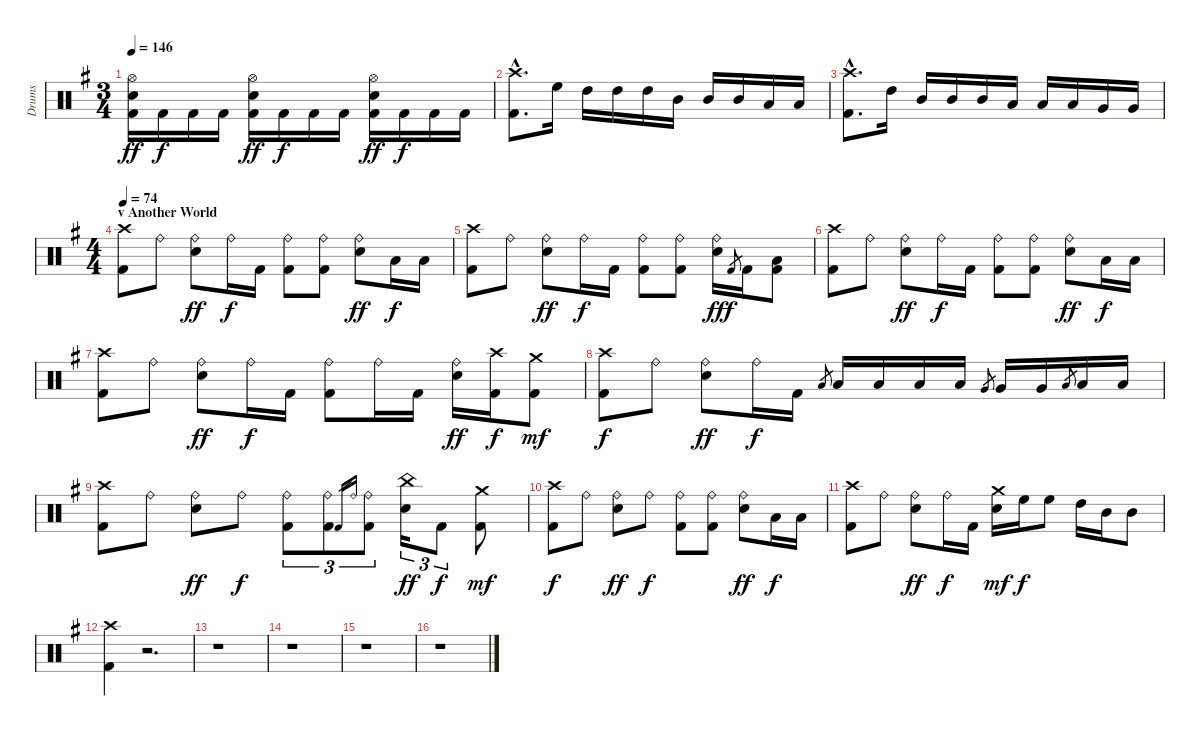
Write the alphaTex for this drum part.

\track ("Drums" "Drums") {instrument percussion}
\staff {score}
\articulation defaults
\ts (3 4)
\tempo 146
\clef neutral
\ks g
("Kick (hit) 2" "Electric Snare (hit)" "Hi-Hat (open)").16{dy ff} "Kick (hit) 2".16{dy f} "Kick (hit) 2".16 "Kick (hit) 2".16 ("Kick (hit) 2" "Electric Snare (hit)" "Hi-Hat (open)").16{dy ff} "Kick (hit) 2".16{dy f} "Kick (hit) 2".16 "Kick (hit) 2".16 ("Kick (hit) 2" "Electric Snare (hit)" "Hi-Hat (open)").16{dy ff} "Kick (hit) 2".16{dy f} "Kick (hit) 2".16 "Kick (hit) 2".16 |
("Kick (hit) 2"{hac} "Crash high (hit)"{hac}).8{d} "High Floor Tom (hit)".16 "High Tom (hit)".16 "High Tom (hit)".16 "High Tom (hit)".16 "Mid Tom (hit)".16 "Mid Tom (hit)".16 "Mid Tom (hit)".16 "Low Tom (hit)".16 "Low Tom (hit)".16 |
("Kick (hit) 2"{hac} "Crash high (hit)"{hac}).8{d} "High Tom (hit)".16 "Mid Tom (hit)".16 "Mid Tom (hit)".16 "Mid Tom (hit)".16 "Low Tom (hit)".16 "Low Tom (hit)".16 "Low Tom (hit)".16 "Very Low Tom (hit)".16 "Very Low Tom (hit)".16 |
\ts (4 4)
\section ("" "v Another World")
\tempo 74
("Kick (hit) 2" "Crash high (hit)").8 "Ride (bell)".8 ("Electric Snare (hit)" "Ride (bell)").8{dy ff} "Ride (bell)".16{dy f} "Kick (hit) 2".16 ("Kick (hit) 2" "Ride (bell)").8 ("Kick (hit) 2" "Ride (bell)").8 ("Electric Snare (hit)" "Ride (bell)").8{dy ff} "Low Floor Tom (hit)".16{dy f} "Low Floor Tom (hit)".16 |
("Kick (hit) 2" "Crash high (hit)").8 "Ride (bell)".8 ("Electric Snare (hit)" "Ride (bell)").8{dy ff} "Ride (bell)".16{dy f} "Kick (hit) 2".16 ("Kick (hit) 2" "Ride (bell)").8 ("Kick (hit) 2" "Ride (bell)").8 ("Electric Snare (hit)" "Ride (bell)").16{dy ff} "Kick (hit) 2".8{gr dy f} "Kick (hit) 2".16 ("Kick (hit) 2" "Low Floor Tom (hit)").8 |
("Kick (hit) 2" "Crash high (hit)").8 "Ride (bell)".8 ("Electric Snare (hit)" "Ride (bell)").8{dy ff} "Ride (bell)".16{dy f} "Kick (hit) 2".16 ("Kick (hit) 2" "Ride (bell)").8 ("Kick (hit) 2" "Ride (bell)").8 ("Electric Snare (hit)" "Ride (bell)").8{dy ff} "Low Floor Tom (hit)".16{dy f} "Low Floor Tom (hit)".16 |
("Kick (hit) 2" "Crash high (hit)").8 "Ride (bell)".8 ("Electric Snare (hit)" "Ride (bell)").8{dy ff} "Ride (bell)".16{dy f} "Kick (hit) 2".16 ("Kick (hit) 2" "Ride (bell)").8 "Ride (bell)".16 "Kick (hit) 2".16 ("Electric Snare (hit)" "Ride (bell)").16{dy ff} ("Kick (hit) 2" "Crash high (hit)").16{dy f} ("Kick (hit) 2" "Crash medium (hit)").8{dy mf} |
("Kick (hit) 2" "Crash high (hit)").8{dy f} "Ride (bell)".8 ("Electric Snare (hit)" "Ride (bell)").8{dy ff} "Ride (bell)".16{dy f} "Kick (hit) 2".16 "Low Tom (hit)".8{gr} "Low Tom (hit)".16 "Low Tom (hit)".16 "Low Tom (hit)".16 "Low Tom (hit)".16 "Very Low Tom (hit)".8{gr} "Very Low Tom (hit)".16 "Very Low Tom (hit)".16 "Low Floor Tom (hit)".8{gr} "Low Floor Tom (hit)".16 "Low Floor Tom (hit)".16 |
("Kick (hit) 2" "Crash high (hit)").8 "Ride (bell)".8 ("Electric Snare (hit)" "Ride (bell)").8{dy ff} "Ride (bell)".8{dy f} ("Kick (hit) 2" "Ride (bell)").8{tu (3 2)} ("Kick (hit) 2" "Ride (bell)").8{tu (3 2)} "Kick (hit) 2".16{gr} "Ride (bell)".16{gr} ("Kick (hit) 2" "Ride (bell)").8{tu (3 2)} ("Electric Snare (hit)" "China (hit)").16{tu (3 2) dy ff} "Kick (hit) 2".8{tu (3 2) dy f} ("Kick (hit) 2" "Crash medium (hit)").8{dy mf} |
("Kick (hit) 2" "Crash high (hit)").8{dy f} "Ride (bell)".8 ("Electric Snare (hit)" "Ride (bell)").8{dy ff} "Ride (bell)".8{dy f} ("Kick (hit) 2" "Ride (bell)").8 ("Kick (hit) 2" "Ride (bell)").8 ("Electric Snare (hit)" "Ride (bell)").8{dy ff} "Low Floor Tom (hit)".16{dy f} "Low Floor Tom (hit)".16 |
("Kick (hit) 2" "Crash high (hit)").8 "Ride (bell)".8 ("Electric Snare (hit)" "Ride (bell)").8{dy ff} "Ride (bell)".16{dy f} "Kick (hit) 2".16 ("Electric Snare (hit)" "Crash medium (hit)").16{dy mf} "High Floor Tom (hit)".16{dy f} "High Floor Tom (hit)".8 "High Tom (hit)".16 "Mid Tom (hit)".16 "Mid Tom (hit)".8 |
("Kick (hit) 2" "Crash high (hit)").4 r.2{d} |
r.1 |
r.1 |
r.1 |
r.1
